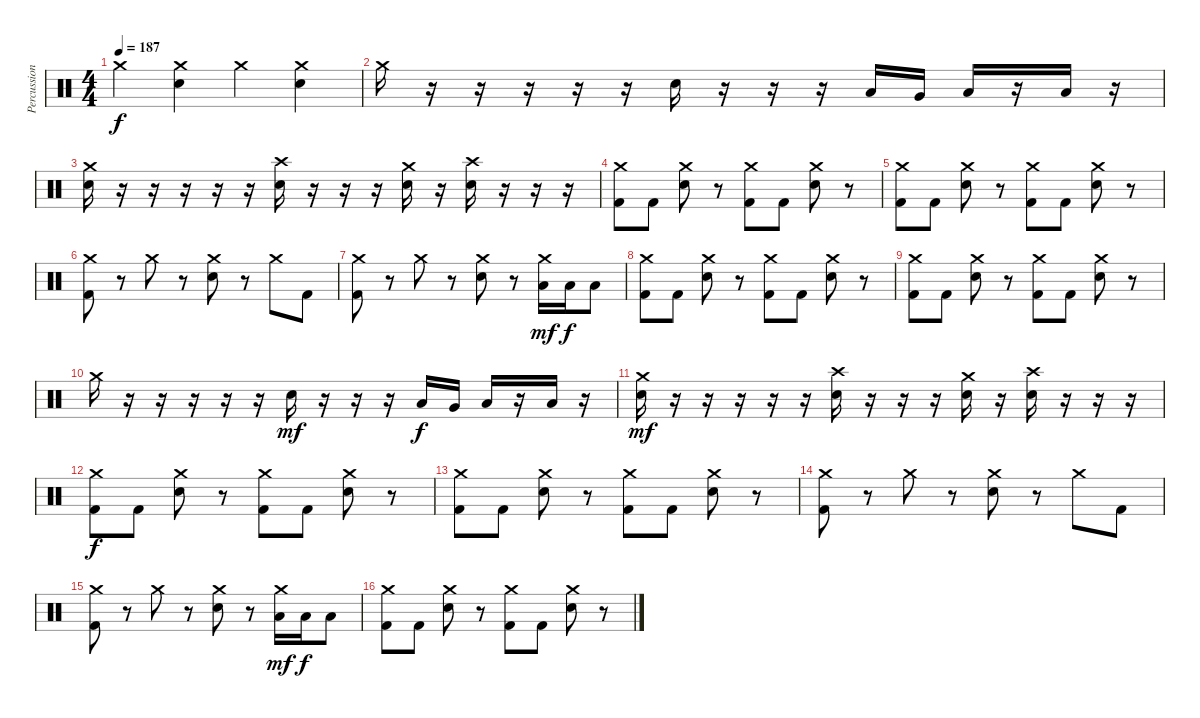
\track ("Percussion" "Percussion") {instrument percussion}
\staff {score}
\articulation defaults
\ts (4 4)
\tempo 187
\clef neutral
\ks c "Crash medium (hit)".4{dy f}
("Crash medium (hit)" "Electric Snare (hit)").4 "Crash medium (hit)".4 ("Crash medium (hit)" "Electric Snare (hit)").4 |
"Crash medium (hit)".16 r.16 r.16 r.16 r.16 r.16 "Electric Snare (hit)".16 r.16 r.16 r.16 "Low Tom (hit)".16 "Very Low Tom (hit)".16 "Low Floor Tom (hit)".16 r.16 "Low Floor Tom (hit)".16 r.16 |
("Crash medium (hit)" "Electric Snare (hit)").16 r.16 r.16 r.16 r.16 r.16 ("Crash high (hit)" "Electric Snare (hit)").16 r.16 r.16 r.16 ("Crash medium (hit)" "Electric Snare (hit)").16 r.16 ("Crash high (hit)" "Electric Snare (hit)").16 r.16 r.16 r.16 |
("Crash medium (hit)" "Kick (hit) 2").8 "Kick (hit) 2".8 ("Crash medium (hit)" "Electric Snare (hit)").8 r.8 ("Crash medium (hit)" "Kick (hit) 2").8 "Kick (hit) 2".8 ("Crash medium (hit)" "Electric Snare (hit)").8 r.8 |
("Crash medium (hit)" "Kick (hit) 2").8 "Kick (hit) 2".8 ("Crash medium (hit)" "Electric Snare (hit)").8 r.8 ("Crash medium (hit)" "Kick (hit) 2").8 "Kick (hit) 2".8 ("Crash medium (hit)" "Electric Snare (hit)").8 r.8 |
("Crash medium (hit)" "Kick (hit) 2").8 r.8 "Crash medium (hit)".8 r.8 ("Crash medium (hit)" "Electric Snare (hit)").8 r.8 "Crash medium (hit)".8 "Kick (hit) 2".8 |
("Crash medium (hit)" "Kick (hit) 2").8 r.8 "Crash medium (hit)".8 r.8 ("Crash medium (hit)" "Electric Snare (hit)").8 r.8 ("Crash medium (hit)" "Low Floor Tom (hit)").16{dy mf} "Low Floor Tom (hit)".16{dy f} "Low Floor Tom (hit)".8 |
("Crash medium (hit)" "Kick (hit) 2").8 "Kick (hit) 2".8 ("Crash medium (hit)" "Electric Snare (hit)").8 r.8 ("Crash medium (hit)" "Kick (hit) 2").8 "Kick (hit) 2".8 ("Crash medium (hit)" "Electric Snare (hit)").8 r.8 |
("Crash medium (hit)" "Kick (hit) 2").8 "Kick (hit) 2".8 ("Crash medium (hit)" "Electric Snare (hit)").8 r.8 ("Crash medium (hit)" "Kick (hit) 2").8 "Kick (hit) 2".8 ("Crash medium (hit)" "Electric Snare (hit)").8 r.8 |
"Crash medium (hit)".16 r.16 r.16 r.16 r.16 r.16 "Electric Snare (hit)".16{dy mf} r.16 r.16 r.16 "Low Tom (hit)".16{dy f} "Very Low Tom (hit)".16 "Low Floor Tom (hit)".16 r.16 "Low Floor Tom (hit)".16 r.16 |
("Crash medium (hit)" "Electric Snare (hit)").16{dy mf} r.16 r.16 r.16 r.16 r.16 ("Crash high (hit)" "Electric Snare (hit)").16 r.16 r.16 r.16 ("Crash medium (hit)" "Electric Snare (hit)").16 r.16 ("Crash high (hit)" "Electric Snare (hit)").16 r.16 r.16 r.16 |
("Crash medium (hit)" "Kick (hit) 2").8{dy f} "Kick (hit) 2".8 ("Crash medium (hit)" "Electric Snare (hit)").8 r.8 ("Crash medium (hit)" "Kick (hit) 2").8 "Kick (hit) 2".8 ("Crash medium (hit)" "Electric Snare (hit)").8 r.8 |
("Crash medium (hit)" "Kick (hit) 2").8 "Kick (hit) 2".8 ("Crash medium (hit)" "Electric Snare (hit)").8 r.8 ("Crash medium (hit)" "Kick (hit) 2").8 "Kick (hit) 2".8 ("Crash medium (hit)" "Electric Snare (hit)").8 r.8 |
("Crash medium (hit)" "Kick (hit) 2").8 r.8 "Crash medium (hit)".8 r.8 ("Crash medium (hit)" "Electric Snare (hit)").8 r.8 "Crash medium (hit)".8 "Kick (hit) 2".8 |
("Crash medium (hit)" "Kick (hit) 2").8 r.8 "Crash medium (hit)".8 r.8 ("Crash medium (hit)" "Electric Snare (hit)").8 r.8 ("Crash medium (hit)" "Low Floor Tom (hit)").16{dy mf} "Low Floor Tom (hit)".16{dy f} "Low Floor Tom (hit)".8 |
("Crash medium (hit)" "Kick (hit) 2").8 "Kick (hit) 2".8 ("Crash medium (hit)" "Electric Snare (hit)").8 r.8 ("Crash medium (hit)" "Kick (hit) 2").8 "Kick (hit) 2".8 ("Crash medium (hit)" "Electric Snare (hit)").8 r.8
